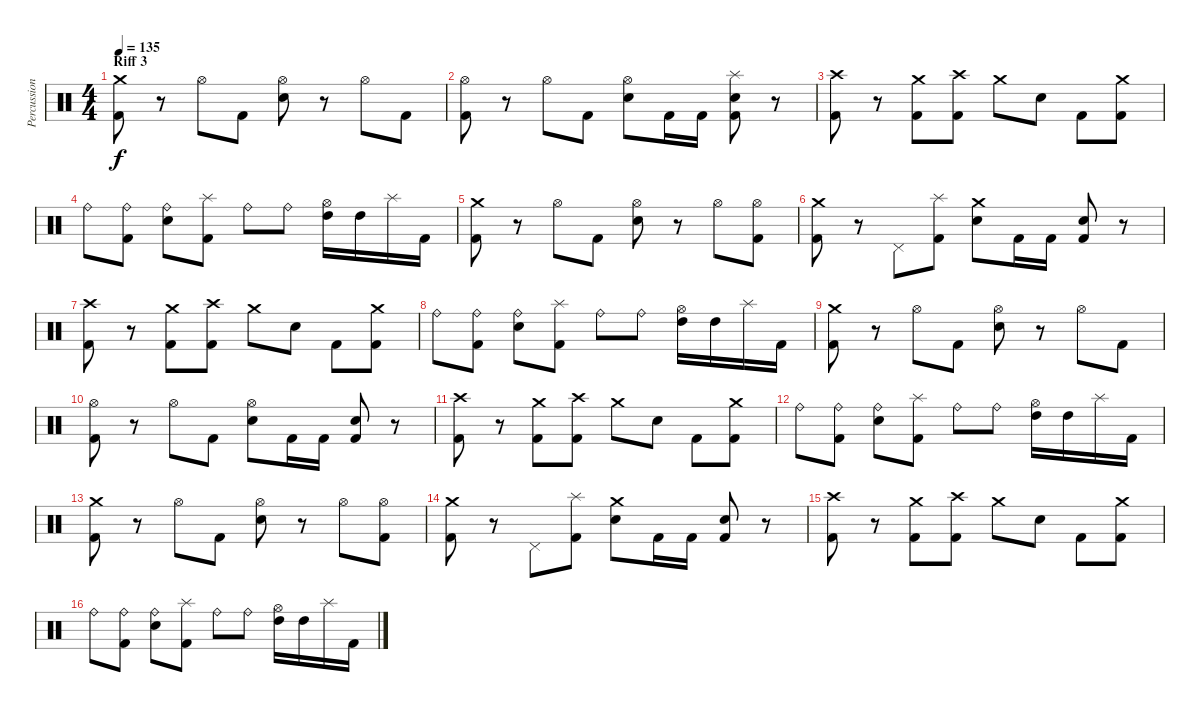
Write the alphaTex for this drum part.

\track ("Percussion" "Percussion") {instrument percussion}
\staff {score}
\articulation defaults
\ts (4 4)
\section ("" "Riff 3")
\tempo 135
\clef neutral
\ks c
("Crash medium (hit)" "Kick (hit) 2").8{dy f} r.8 "Hi-Hat (open)".8 "Kick (hit) 2".8 ("Hi-Hat (open)" "Electric Snare (hit)").8 r.8 "Hi-Hat (open)".8 "Kick (hit) 2".8 |
("Hi-Hat (open)" "Kick (hit) 2").8 r.8 "Hi-Hat (open)".8 "Kick (hit) 2".8 ("Hi-Hat (open)" "Electric Snare (hit)").8 "Kick (hit) 2".16 "Kick (hit) 2".16 ("Splash (hit)" "Electric Snare (hit)" "Kick (hit) 2").8 r.8 |
("Crash high (hit)" "Kick (hit) 2").8 r.8 ("Crash medium (hit)" "Kick (hit) 2").8 ("Crash high (hit)" "Kick (hit) 2").8 "Crash medium (hit)".8 "Electric Snare (hit)".8 "Kick (hit) 2".8 ("Crash medium (hit)" "Kick (hit) 2").8 |
"Ride (bell)".8 ("Ride (bell)" "Kick (hit) 2").8 ("Ride (bell)" "Electric Snare (hit)").8 ("Splash (hit)" "Kick (hit) 2").8 "Ride (bell)".8 "Ride (bell)".8 ("Hi-Hat (open)" "High Tom (hit)").16 "High Tom (hit)".16 "Splash (hit)".16 "Kick (hit) 2".16 |
("Crash medium (hit)" "Kick (hit) 2").8 r.8 "Hi-Hat (open)".8 "Kick (hit) 2".8 ("Hi-Hat (open)" "Electric Snare (hit)").8 r.8 "Hi-Hat (open)".8 ("Hi-Hat (open)" "Kick (hit) 2").8 |
("Crash medium (hit)" "Kick (hit) 2").8 r.8 "Pedal Hi-Hat (hit)".8 ("Splash (hit)" "Kick (hit) 2").8 ("Crash medium (hit)" "Electric Snare (hit)").8 "Kick (hit) 2".16 "Kick (hit) 2".16 ("Electric Snare (hit)" "Kick (hit) 2").8 r.8 |
("Crash high (hit)" "Kick (hit) 2").8 r.8 ("Crash medium (hit)" "Kick (hit) 2").8 ("Crash high (hit)" "Kick (hit) 2").8 "Crash medium (hit)".8 "Electric Snare (hit)".8 "Kick (hit) 2".8 ("Crash medium (hit)" "Kick (hit) 2").8 |
"Ride (bell)".8 ("Ride (bell)" "Kick (hit) 2").8 ("Ride (bell)" "Electric Snare (hit)").8 ("Splash (hit)" "Kick (hit) 2").8 "Ride (bell)".8 "Ride (bell)".8 ("Hi-Hat (open)" "High Tom (hit)").16 "High Tom (hit)".16 "Splash (hit)".16 "Kick (hit) 2".16 |
("Crash medium (hit)" "Kick (hit) 2").8 r.8 "Hi-Hat (open)".8 "Kick (hit) 2".8 ("Hi-Hat (open)" "Electric Snare (hit)").8 r.8 "Hi-Hat (open)".8 "Kick (hit) 2".8 |
("Hi-Hat (open)" "Kick (hit) 2").8 r.8 "Hi-Hat (open)".8 "Kick (hit) 2".8 ("Hi-Hat (open)" "Electric Snare (hit)").8 "Kick (hit) 2".16 "Kick (hit) 2".16 ("Electric Snare (hit)" "Kick (hit) 2").8 r.8 |
("Crash high (hit)" "Kick (hit) 2").8 r.8 ("Crash medium (hit)" "Kick (hit) 2").8 ("Crash high (hit)" "Kick (hit) 2").8 "Crash medium (hit)".8 "Electric Snare (hit)".8 "Kick (hit) 2".8 ("Crash medium (hit)" "Kick (hit) 2").8 |
"Ride (bell)".8 ("Ride (bell)" "Kick (hit) 2").8 ("Ride (bell)" "Electric Snare (hit)").8 ("Splash (hit)" "Kick (hit) 2").8 "Ride (bell)".8 "Ride (bell)".8 ("Hi-Hat (open)" "High Tom (hit)").16 "High Tom (hit)".16 "Splash (hit)".16 "Kick (hit) 2".16 |
("Crash medium (hit)" "Kick (hit) 2").8 r.8 "Hi-Hat (open)".8 "Kick (hit) 2".8 ("Hi-Hat (open)" "Electric Snare (hit)").8 r.8 "Hi-Hat (open)".8 ("Hi-Hat (open)" "Kick (hit) 2").8 |
("Crash medium (hit)" "Kick (hit) 2").8 r.8 "Pedal Hi-Hat (hit)".8 ("Splash (hit)" "Kick (hit) 2").8 ("Crash medium (hit)" "Electric Snare (hit)").8 "Kick (hit) 2".16 "Kick (hit) 2".16 ("Electric Snare (hit)" "Kick (hit) 2").8 r.8 |
("Crash high (hit)" "Kick (hit) 2").8 r.8 ("Crash medium (hit)" "Kick (hit) 2").8 ("Crash high (hit)" "Kick (hit) 2").8 "Crash medium (hit)".8 "Electric Snare (hit)".8 "Kick (hit) 2".8 ("Crash medium (hit)" "Kick (hit) 2").8 |
"Ride (bell)".8 ("Ride (bell)" "Kick (hit) 2").8 ("Ride (bell)" "Electric Snare (hit)").8 ("Splash (hit)" "Kick (hit) 2").8 "Ride (bell)".8 "Ride (bell)".8 ("Hi-Hat (open)" "High Tom (hit)").16 "High Tom (hit)".16 "Splash (hit)".16 "Kick (hit) 2".16
